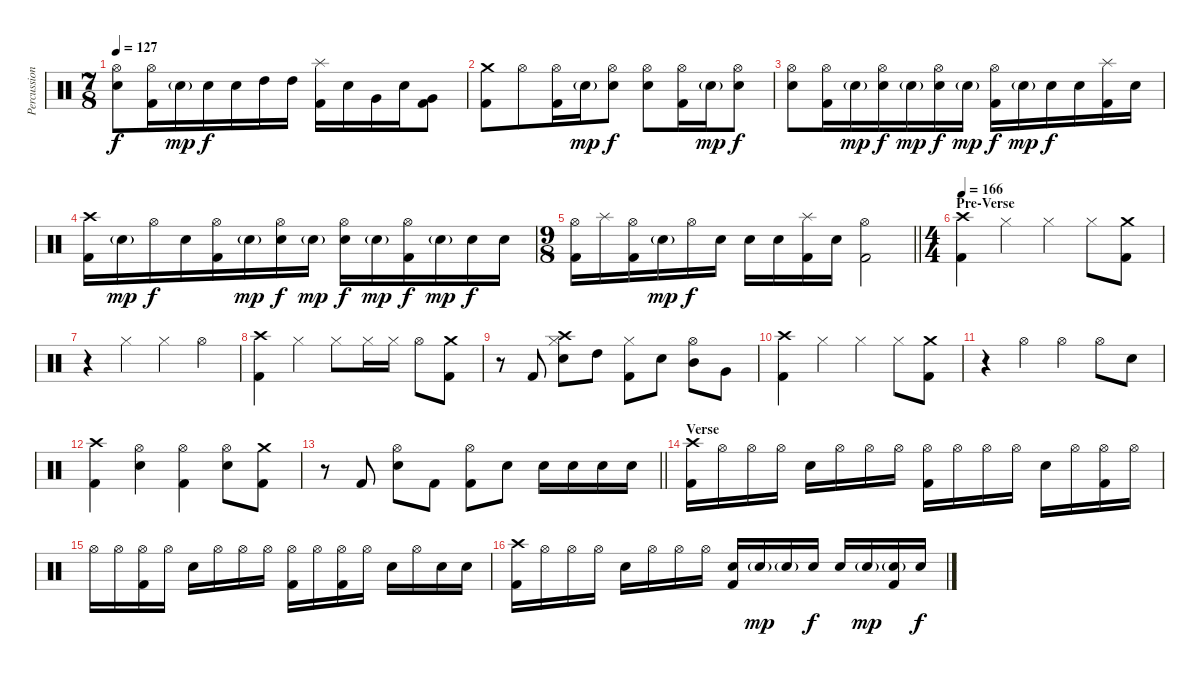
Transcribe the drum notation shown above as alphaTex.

\track ("Percussion" "Percussion") {instrument percussion}
\staff {score}
\articulation defaults
\ts (7 8)
\tempo 127
\clef neutral
\ks c
("Hi-Hat (open)" "Electric Snare (hit)").8{dy f} ("Hi-Hat (open)" "Kick (hit) 2").16 "Electric Snare (hit)"{g}.16{dy mp} "Electric Snare (hit)".16{dy f} "Electric Snare (hit)".16 "High Tom (hit)".16 "High Tom (hit)".16 ("Splash (hit)" "Kick (hit) 2").16 "Electric Snare (hit)".16 "Very Low Tom (hit)".16 "Electric Snare (hit)".16 ("Very Low Tom (hit)" "Kick (hit) 2").8 |
("Crash medium (hit)" "Kick (hit) 2").8 "Hi-Hat (open)".8 ("Hi-Hat (open)" "Kick (hit) 2").16 "Electric Snare (hit)"{g}.16{dy mp} ("Hi-Hat (open)" "Electric Snare (hit)").8{dy f} ("Hi-Hat (open)" "Electric Snare (hit)").8 ("Hi-Hat (open)" "Kick (hit) 2").16 "Electric Snare (hit)"{g}.16{dy mp} ("Hi-Hat (open)" "Electric Snare (hit)").8{dy f} |
("Hi-Hat (open)" "Electric Snare (hit)").8 ("Hi-Hat (open)" "Kick (hit) 2").16 "Electric Snare (hit)"{g}.16{dy mp} ("Hi-Hat (open)" "Electric Snare (hit)").16{dy f} "Electric Snare (hit)"{g}.16{dy mp} ("Hi-Hat (open)" "Electric Snare (hit)").16{dy f} "Electric Snare (hit)"{g}.16{dy mp} ("Hi-Hat (open)" "Kick (hit) 2").16{dy f} "Electric Snare (hit)"{g}.16{dy mp} "Electric Snare (hit)".16{dy f} "Electric Snare (hit)".16 ("Splash (hit)" "Kick (hit) 2").16 "Electric Snare (hit)".16 |
("Crash high (hit)" "Kick (hit) 2").16 "Electric Snare (hit)"{g}.16{dy mp} "Hi-Hat (open)".16{dy f} "Electric Snare (hit)".16 ("Hi-Hat (open)" "Kick (hit) 2").16 "Electric Snare (hit)"{g}.16{dy mp} ("Hi-Hat (open)" "Electric Snare (hit)").16{dy f} "Electric Snare (hit)"{g}.16{dy mp} ("Hi-Hat (open)" "Electric Snare (hit)").16{dy f} "Electric Snare (hit)"{g}.16{dy mp} ("Hi-Hat (open)" "Kick (hit) 2").16{dy f} "Electric Snare (hit)"{g}.16{dy mp} "Electric Snare (hit)".16{dy f} "Electric Snare (hit)".16 |
\ts (9 8)
\barLineRight lightlight
("Hi-Hat (open)" "Kick (hit) 2").16 "Splash (hit)".16 ("Hi-Hat (open)" "Kick (hit) 2").16 "Electric Snare (hit)"{g}.16{dy mp} "Hi-Hat (open)".16{dy f} "Electric Snare (hit)".16 "Electric Snare (hit)".16 "Electric Snare (hit)".16 ("Splash (hit)" "Kick (hit) 2").16 "Electric Snare (hit)".16 ("Hi-Hat (open)" "Kick (hit) 2").2 |
\ts (4 4)
\section ("" "Pre-Verse")
\tempo 166
("Crash high (hit)" "Kick (hit) 2").4 "Hi-Hat (closed)".4 "Hi-Hat (closed)".4 "Hi-Hat (closed)".8 ("Crash medium (hit)" "Kick (hit) 2").8 |
r.4 "Hi-Hat (closed)".4 "Hi-Hat (closed)".4 "Hi-Hat (open)".4 |
("Crash high (hit)" "Kick (hit) 2").4 "Hi-Hat (closed)".4 "Hi-Hat (closed)".8 "Hi-Hat (closed)".16 "Hi-Hat (closed)".16 "Hi-Hat (open)".8 ("Crash medium (hit)" "Kick (hit) 2").8 |
r.8 "Kick (hit) 2".8 ("Crash high (hit)" "Hi-Hat (closed)" "Electric Snare (hit)").8 "High Tom (hit)".8 ("Hi-Hat (closed)" "Kick (hit) 2").8 "Electric Snare (hit)".8 ("Hi-Hat (open)" "Mid Tom (hit)").8 "Very Low Tom (hit)".8 |
("Crash high (hit)" "Kick (hit) 2").4 "Hi-Hat (closed)".4 "Hi-Hat (closed)".4 "Hi-Hat (closed)".8 ("Crash medium (hit)" "Kick (hit) 2").8 |
r.4 "Hi-Hat (open)".4 "Hi-Hat (open)".4 "Hi-Hat (open)".8 "Electric Snare (hit)".8 |
("Crash high (hit)" "Kick (hit) 2").4 ("Hi-Hat (open)" "Electric Snare (hit)").4 ("Hi-Hat (open)" "Kick (hit) 2").4 ("Hi-Hat (open)" "Electric Snare (hit)").8 ("Crash medium (hit)" "Kick (hit) 2").8 |
\barLineRight lightlight
r.8 "Kick (hit) 2".8 ("Hi-Hat (open)" "Electric Snare (hit)").8 "Kick (hit) 2".8 ("Hi-Hat (open)" "Kick (hit) 2").8 "Electric Snare (hit)".8 "Electric Snare (hit)".16 "Electric Snare (hit)".16 "Electric Snare (hit)".16 "Electric Snare (hit)".16 |
\section ("" "Verse")
("Crash high (hit)" "Kick (hit) 2").16 "Hi-Hat (open)".16 "Hi-Hat (open)".16 "Hi-Hat (open)".16 "Electric Snare (hit)".16 "Hi-Hat (open)".16 "Hi-Hat (open)".16 "Hi-Hat (open)".16 ("Hi-Hat (open)" "Kick (hit) 2").16 "Hi-Hat (open)".16 "Hi-Hat (open)".16 "Hi-Hat (open)".16 "Electric Snare (hit)".16 "Hi-Hat (open)".16 ("Hi-Hat (open)" "Kick (hit) 2").16 "Hi-Hat (open)".16 |
"Hi-Hat (open)".16 "Hi-Hat (open)".16 ("Hi-Hat (open)" "Kick (hit) 2").16 "Hi-Hat (open)".16 "Electric Snare (hit)".16 "Hi-Hat (open)".16 "Hi-Hat (open)".16 "Hi-Hat (open)".16 ("Hi-Hat (open)" "Kick (hit) 2").16 "Hi-Hat (open)".16 ("Hi-Hat (open)" "Kick (hit) 2").16 "Hi-Hat (open)".16 "Electric Snare (hit)".16 "Hi-Hat (open)".16 "Electric Snare (hit)".16 "Electric Snare (hit)".16 |
("Crash high (hit)" "Kick (hit) 2").16 "Hi-Hat (open)".16 "Hi-Hat (open)".16 "Hi-Hat (open)".16 "Electric Snare (hit)".16 "Hi-Hat (open)".16 "Hi-Hat (open)".16 "Hi-Hat (open)".16 ("Electric Snare (hit)" "Kick (hit) 2").16 "Electric Snare (hit)"{g}.16{dy mp} "Electric Snare (hit)"{g}.16 "Electric Snare (hit)".16{dy f} "Electric Snare (hit)".16 "Electric Snare (hit)"{g}.16{dy mp} ("Electric Snare (hit)"{g} "Kick (hit) 2").16 "Electric Snare (hit)".16{dy f}
